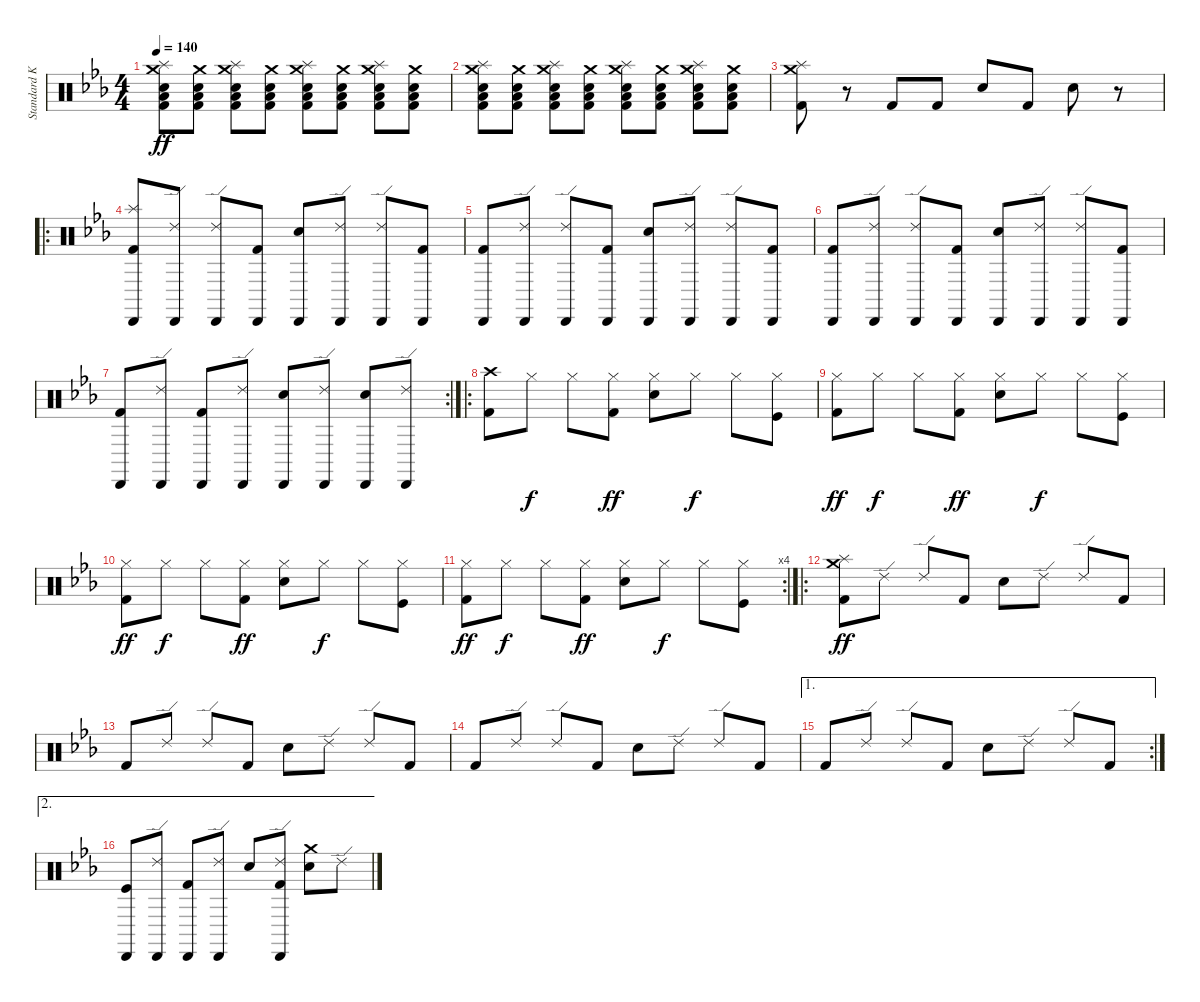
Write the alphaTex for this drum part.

\track ("Standard Kit" "Standard K") {instrument percussion}
\staff {score}
\articulation defaults
\ts (4 4)
\tempo 140
\clef neutral
\ks eb
("Kick (hit) 2" "Low Floor Tom (hit)" "Electric Snare (hit)" "Splash (hit)" "Crash medium (hit)").8{dy ff} ("Kick (hit) 2" "Low Floor Tom (hit)" "Electric Snare (hit)" "Crash medium (hit)").8 ("Kick (hit) 2" "Low Floor Tom (hit)" "Electric Snare (hit)" "Splash (hit)" "Crash medium (hit)").8 ("Kick (hit) 2" "Low Floor Tom (hit)" "Electric Snare (hit)" "Crash medium (hit)").8 ("Kick (hit) 2" "Low Floor Tom (hit)" "Electric Snare (hit)" "Splash (hit)" "Crash medium (hit)").8 ("Kick (hit) 2" "Low Floor Tom (hit)" "Electric Snare (hit)" "Crash medium (hit)").8 ("Kick (hit) 2" "Low Floor Tom (hit)" "Electric Snare (hit)" "Splash (hit)" "Crash medium (hit)").8 ("Kick (hit) 2" "Low Floor Tom (hit)" "Electric Snare (hit)" "Crash medium (hit)").8 |
("Kick (hit) 2" "Low Floor Tom (hit)" "Electric Snare (hit)" "Splash (hit)" "Crash medium (hit)").8 ("Kick (hit) 2" "Low Floor Tom (hit)" "Electric Snare (hit)" "Crash medium (hit)").8 ("Kick (hit) 2" "Low Floor Tom (hit)" "Electric Snare (hit)" "Splash (hit)" "Crash medium (hit)").8 ("Kick (hit) 2" "Low Floor Tom (hit)" "Electric Snare (hit)" "Crash medium (hit)").8 ("Kick (hit) 2" "Low Floor Tom (hit)" "Electric Snare (hit)" "Splash (hit)" "Crash medium (hit)").8 ("Kick (hit) 2" "Low Floor Tom (hit)" "Electric Snare (hit)" "Crash medium (hit)").8 ("Kick (hit) 2" "Low Floor Tom (hit)" "Electric Snare (hit)" "Splash (hit)" "Crash medium (hit)").8 ("Kick (hit) 2" "Low Floor Tom (hit)" "Electric Snare (hit)" "Crash medium (hit)").8 |
("Kick (hit) 2" "Crash medium (hit)" "Splash (hit)").8 r.8 "Kick (hit) 2".8 "Kick (hit) 2".8 "Electric Snare (hit)".8 "Kick (hit) 2".8 "Electric Snare (hit)".8 r.8 |
\ro
("Kick (hit) 2" "Cabasa (hit)" "Splash (hit)").8 ("Cabasa (hit)" "Ride (edge) 2").8 ("Cabasa (hit)" "Ride (edge) 2").8 ("Kick (hit) 2" "Cabasa (hit)").8 ("Cabasa (hit)" "Snare (hit) 2").8 ("Cabasa (hit)" "Ride (edge) 2").8 ("Cabasa (hit)" "Ride (edge) 2").8 ("Kick (hit) 2" "Cabasa (hit)").8 |
("Kick (hit) 2" "Cabasa (hit)").8 ("Cabasa (hit)" "Ride (edge) 2").8 ("Cabasa (hit)" "Ride (edge) 2").8 ("Kick (hit) 2" "Cabasa (hit)").8 ("Cabasa (hit)" "Snare (hit) 2").8 ("Cabasa (hit)" "Ride (edge) 2").8 ("Cabasa (hit)" "Ride (edge) 2").8 ("Kick (hit) 2" "Cabasa (hit)").8 |
("Kick (hit) 2" "Cabasa (hit)").8 ("Cabasa (hit)" "Ride (edge) 2").8 ("Cabasa (hit)" "Ride (edge) 2").8 ("Kick (hit) 2" "Cabasa (hit)").8 ("Cabasa (hit)" "Snare (hit) 2").8 ("Cabasa (hit)" "Ride (edge) 2").8 ("Cabasa (hit)" "Ride (edge) 2").8 ("Kick (hit) 2" "Cabasa (hit)").8 |
\rc 2
("Kick (hit) 2" "Cabasa (hit)").8 ("Cabasa (hit)" "Ride (edge) 2").8 ("Kick (hit) 2" "Cabasa (hit)").8 ("Cabasa (hit)" "Ride (edge) 2").8 ("Cabasa (hit)" "Snare (hit) 2").8 ("Cabasa (hit)" "Ride (edge) 2").8 ("Cabasa (hit)" "Snare (hit) 2").8 ("Cabasa (hit)" "Ride (edge) 2").8 |
\ro
("Kick (hit) 2" "Crash high (hit)").8 "Hi-Hat (closed)".8{dy f} "Hi-Hat (closed)".8 ("Kick (hit) 2" "Hi-Hat (closed)").8{dy ff} ("Hi-Hat (closed)" "Snare (hit) 2").8 "Hi-Hat (closed)".8{dy f} "Hi-Hat (closed)".8 ("Kick (hit)" "Hi-Hat (closed)").8 |
("Kick (hit) 2" "Hi-Hat (closed)").8{dy ff} "Hi-Hat (closed)".8{dy f} "Hi-Hat (closed)".8 ("Kick (hit) 2" "Hi-Hat (closed)").8{dy ff} ("Hi-Hat (closed)" "Snare (hit) 2").8 "Hi-Hat (closed)".8{dy f} "Hi-Hat (closed)".8 ("Kick (hit)" "Hi-Hat (closed)").8 |
("Kick (hit) 2" "Hi-Hat (closed)").8{dy ff} "Hi-Hat (closed)".8{dy f} "Hi-Hat (closed)".8 ("Kick (hit) 2" "Hi-Hat (closed)").8{dy ff} ("Hi-Hat (closed)" "Snare (hit) 2").8 "Hi-Hat (closed)".8{dy f} "Hi-Hat (closed)".8 ("Kick (hit)" "Hi-Hat (closed)").8 |
\rc 4
("Kick (hit) 2" "Hi-Hat (closed)").8{dy ff} "Hi-Hat (closed)".8{dy f} "Hi-Hat (closed)".8 ("Kick (hit) 2" "Hi-Hat (closed)").8{dy ff} ("Hi-Hat (closed)" "Snare (hit) 2").8 "Hi-Hat (closed)".8{dy f} "Hi-Hat (closed)".8 ("Kick (hit)" "Hi-Hat (closed)").8 |
\ro
("Kick (hit) 2" "Crash medium (hit)" "Splash (hit)").8{dy ff} "Ride (edge) 2".8 "Ride (edge) 2".8 "Kick (hit) 2".8 "Snare (hit) 2".8 "Ride (edge) 2".8 "Ride (edge) 2".8 "Kick (hit) 2".8 |
"Kick (hit) 2".8 "Ride (edge) 2".8 "Ride (edge) 2".8 "Kick (hit) 2".8 "Snare (hit) 2".8 "Ride (edge) 2".8 "Ride (edge) 2".8 "Kick (hit) 2".8 |
"Kick (hit) 2".8 "Ride (edge) 2".8 "Ride (edge) 2".8 "Kick (hit) 2".8 "Snare (hit) 2".8 "Ride (edge) 2".8 "Ride (edge) 2".8 "Kick (hit) 2".8 |
\ae 1
\rc 2 "Kick (hit) 2".8 "Ride (edge) 2".8 "Ride (edge) 2".8 "Kick (hit) 2".8 "Snare (hit) 2".8 "Ride (edge) 2".8 "Ride (edge) 2".8 "Kick (hit) 2".8
|
\ae 2
("Kick (hit)" "Cabasa (hit)").8 ("Cabasa (hit)" "Ride (edge) 2").8 ("Kick (hit) 2" "Cabasa (hit)").8 ("Cabasa (hit)" "Ride (edge) 2").8 "Snare (hit) 2".8 ("Kick (hit) 2" "Cabasa (hit)" "Ride (edge) 2").8 ("Snare (hit) 2" "Crash medium (hit)").8 "Ride (edge) 2".8
